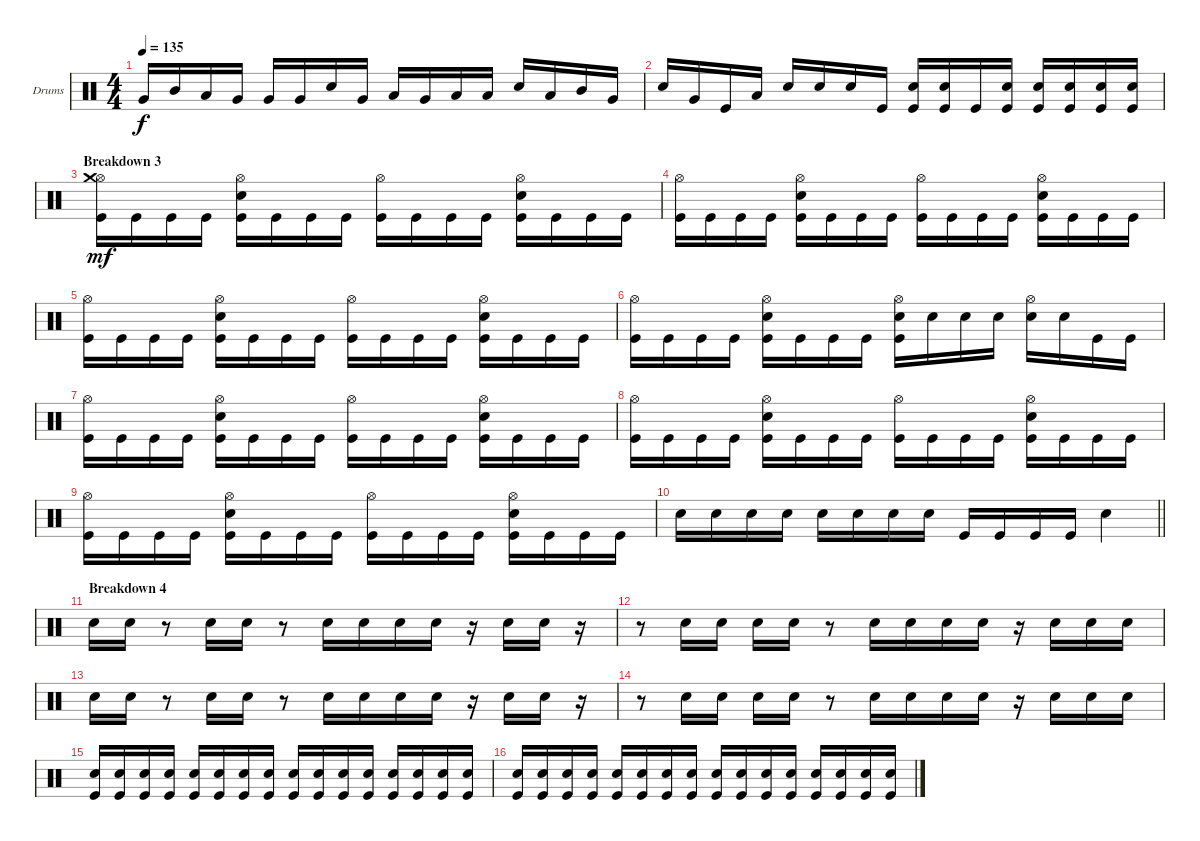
\bracketExtendMode groupsimilarinstruments
\firstSystemTrackNameOrientation horizontal
\otherSystemsTrackNameOrientation horizontal
\track ("Drumkit" "Drums") {instrument percussion}
\staff {score}
\articulation defaults
\ts (4 4)
\tempo 135
\clef neutral
\ks c "Very Low Tom (hit)".16{dy f} "Mid Tom (hit)".16 "Low Tom (hit)".16 "Very Low Tom (hit)".16 "Very Low Tom (hit)".16 "Very Low Tom (hit)".16 "Snare (hit) 2".16 "Very Low Tom (hit)".16 "Low Tom (hit)".16 "Very Low Tom (hit)".16 "Low Tom (hit)".16 "Low Tom (hit)".16 "Snare (hit) 2".16 "Low Tom (hit)".16 "Mid Tom (hit)".16 "Very Low Tom (hit)".16
|
"Snare (hit) 2".16 "Very Low Tom (hit)".16 "Kick (hit)".16 "Low Tom (hit)".16 "Snare (hit) 2".16 "Snare (hit) 2".16 "Snare (hit) 2".16 "Kick (hit)".16 ("Snare (hit) 2" "Kick (hit)").16 ("Snare (hit) 2" "Kick (hit)").16 "Kick (hit)".16 ("Snare (hit) 2" "Kick (hit)").16 ("Snare (hit) 2" "Kick (hit)").16 ("Snare (hit) 2" "Kick (hit)").16 ("Snare (hit) 2" "Kick (hit)").16 ("Snare (hit) 2" "Kick (hit)").16 |
\section ("" "Breakdown 3")
("Kick (hit)" "Hi-Hat (open)" "Crash medium (hit)").16{dy mf} "Kick (hit)".16 "Kick (hit)".16 "Kick (hit)".16 ("Kick (hit)" "Snare (hit) 2" "Hi-Hat (open)").16 "Kick (hit)".16 "Kick (hit)".16 "Kick (hit)".16 ("Kick (hit)" "Hi-Hat (open)").16 "Kick (hit)".16 "Kick (hit)".16 "Kick (hit)".16 ("Kick (hit)" "Snare (hit) 2" "Hi-Hat (open)").16 "Kick (hit)".16 "Kick (hit)".16 "Kick (hit)".16 |
("Kick (hit)" "Hi-Hat (open)").16 "Kick (hit)".16 "Kick (hit)".16 "Kick (hit)".16 ("Kick (hit)" "Snare (hit) 2" "Hi-Hat (open)").16 "Kick (hit)".16 "Kick (hit)".16 "Kick (hit)".16 ("Kick (hit)" "Hi-Hat (open)").16 "Kick (hit)".16 "Kick (hit)".16 "Kick (hit)".16 ("Kick (hit)" "Snare (hit) 2" "Hi-Hat (open)").16 "Kick (hit)".16 "Kick (hit)".16 "Kick (hit)".16 |
("Kick (hit)" "Hi-Hat (open)").16 "Kick (hit)".16 "Kick (hit)".16 "Kick (hit)".16 ("Kick (hit)" "Snare (hit) 2" "Hi-Hat (open)").16 "Kick (hit)".16 "Kick (hit)".16 "Kick (hit)".16 ("Kick (hit)" "Hi-Hat (open)").16 "Kick (hit)".16 "Kick (hit)".16 "Kick (hit)".16 ("Kick (hit)" "Snare (hit) 2" "Hi-Hat (open)").16 "Kick (hit)".16 "Kick (hit)".16 "Kick (hit)".16 |
("Kick (hit)" "Hi-Hat (open)").16 "Kick (hit)".16 "Kick (hit)".16 "Kick (hit)".16 ("Kick (hit)" "Snare (hit) 2" "Hi-Hat (open)").16 "Kick (hit)".16 "Kick (hit)".16 "Kick (hit)".16 ("Kick (hit)" "Hi-Hat (open)" "Snare (hit) 2").16 "Snare (hit) 2".16 "Snare (hit) 2".16 "Snare (hit) 2".16 ("Snare (hit) 2" "Hi-Hat (open)").16 "Snare (hit) 2".16 "Kick (hit)".16 "Kick (hit)".16 |
("Kick (hit)" "Hi-Hat (open)").16 "Kick (hit)".16 "Kick (hit)".16 "Kick (hit)".16 ("Kick (hit)" "Snare (hit) 2" "Hi-Hat (open)").16 "Kick (hit)".16 "Kick (hit)".16 "Kick (hit)".16 ("Kick (hit)" "Hi-Hat (open)").16 "Kick (hit)".16 "Kick (hit)".16 "Kick (hit)".16 ("Kick (hit)" "Snare (hit) 2" "Hi-Hat (open)").16 "Kick (hit)".16 "Kick (hit)".16 "Kick (hit)".16 |
("Kick (hit)" "Hi-Hat (open)").16 "Kick (hit)".16 "Kick (hit)".16 "Kick (hit)".16 ("Kick (hit)" "Snare (hit) 2" "Hi-Hat (open)").16 "Kick (hit)".16 "Kick (hit)".16 "Kick (hit)".16 ("Kick (hit)" "Hi-Hat (open)").16 "Kick (hit)".16 "Kick (hit)".16 "Kick (hit)".16 ("Kick (hit)" "Snare (hit) 2" "Hi-Hat (open)").16 "Kick (hit)".16 "Kick (hit)".16 "Kick (hit)".16 |
("Kick (hit)" "Hi-Hat (open)").16 "Kick (hit)".16 "Kick (hit)".16 "Kick (hit)".16 ("Kick (hit)" "Snare (hit) 2" "Hi-Hat (open)").16 "Kick (hit)".16 "Kick (hit)".16 "Kick (hit)".16 ("Kick (hit)" "Hi-Hat (open)").16 "Kick (hit)".16 "Kick (hit)".16 "Kick (hit)".16 ("Kick (hit)" "Snare (hit) 2" "Hi-Hat (open)").16 "Kick (hit)".16 "Kick (hit)".16 "Kick (hit)".16 |
\barLineRight lightlight "Snare (hit) 2".16 "Snare (hit) 2".16 "Snare (hit) 2".16 "Snare (hit) 2".16 "Snare (hit) 2".16 "Snare (hit) 2".16 "Snare (hit) 2".16 "Snare (hit) 2".16 "Kick (hit)".16 "Kick (hit)".16 "Kick (hit)".16 "Kick (hit)".16 "Snare (hit) 2".4
|
\section ("" "Breakdown 4")
"Snare (hit) 2".16 "Snare (hit) 2".16 r.8 "Snare (hit) 2".16 "Snare (hit) 2".16 r.8 "Snare (hit) 2".16 "Snare (hit) 2".16 "Snare (hit) 2".16 "Snare (hit) 2".16 r.16 "Snare (hit) 2".16 "Snare (hit) 2".16 r.16 |
r.8 "Snare (hit) 2".16 "Snare (hit) 2".16 "Snare (hit) 2".16 "Snare (hit) 2".16 r.8 "Snare (hit) 2".16 "Snare (hit) 2".16 "Snare (hit) 2".16 "Snare (hit) 2".16 r.16 "Snare (hit) 2".16 "Snare (hit) 2".16 "Snare (hit) 2".16 |
"Snare (hit) 2".16 "Snare (hit) 2".16 r.8 "Snare (hit) 2".16 "Snare (hit) 2".16 r.8 "Snare (hit) 2".16 "Snare (hit) 2".16 "Snare (hit) 2".16 "Snare (hit) 2".16 r.16 "Snare (hit) 2".16 "Snare (hit) 2".16 r.16 |
r.8 "Snare (hit) 2".16 "Snare (hit) 2".16 "Snare (hit) 2".16 "Snare (hit) 2".16 r.8 "Snare (hit) 2".16 "Snare (hit) 2".16 "Snare (hit) 2".16 "Snare (hit) 2".16 r.16 "Snare (hit) 2".16 "Snare (hit) 2".16 "Snare (hit) 2".16 |
("Snare (hit) 2" "Kick (hit)").16 ("Snare (hit) 2" "Kick (hit)").16 ("Kick (hit)" "Snare (hit) 2").16 ("Kick (hit)" "Snare (hit) 2").16 ("Snare (hit) 2" "Kick (hit)").16 ("Snare (hit) 2" "Kick (hit)").16 ("Kick (hit)" "Snare (hit) 2").16 ("Kick (hit)" "Snare (hit) 2").16 ("Snare (hit) 2" "Kick (hit)").16 ("Snare (hit) 2" "Kick (hit)").16 ("Snare (hit) 2" "Kick (hit)").16 ("Snare (hit) 2" "Kick (hit)").16 ("Kick (hit)" "Snare (hit) 2").16 ("Snare (hit) 2" "Kick (hit)").16 ("Snare (hit) 2" "Kick (hit)").16 ("Kick (hit)" "Snare (hit) 2").16 |
("Kick (hit)" "Snare (hit) 2").16 ("Kick (hit)" "Snare (hit) 2").16 ("Snare (hit) 2" "Kick (hit)").16 ("Snare (hit) 2" "Kick (hit)").16 ("Snare (hit) 2" "Kick (hit)").16 ("Snare (hit) 2" "Kick (hit)").16 ("Kick (hit)" "Snare (hit) 2").16 ("Kick (hit)" "Snare (hit) 2").16 ("Snare (hit) 2" "Kick (hit)").16 ("Snare (hit) 2" "Kick (hit)").16 ("Snare (hit) 2" "Kick (hit)").16 ("Snare (hit) 2" "Kick (hit)").16 ("Kick (hit)" "Snare (hit) 2").16 ("Snare (hit) 2" "Kick (hit)").16 ("Snare (hit) 2" "Kick (hit)").16 ("Snare (hit) 2" "Kick (hit)").16
